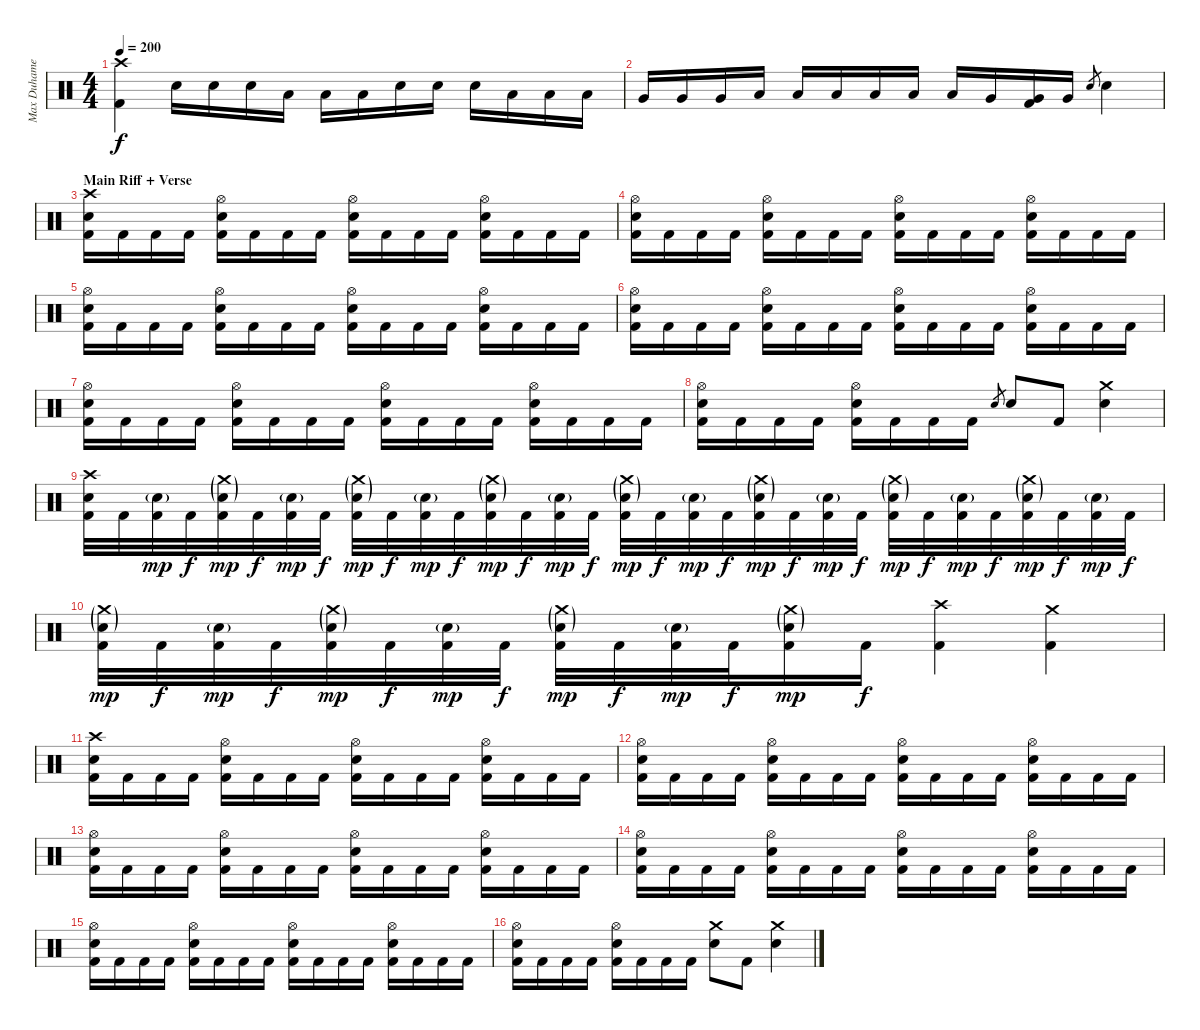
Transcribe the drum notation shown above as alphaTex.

\track ("Max Duhamel" "Max Duhame") {instrument percussion}
\staff {score}
\articulation defaults
\ts (4 4)
\tempo 200
\clef neutral
\ks c
("Crash high (hit)" "Kick (hit) 2").4{dy f} "Electric Snare (hit)".16 "Electric Snare (hit)".16 "Electric Snare (hit)".16 "Low Floor Tom (hit)".16 "Low Floor Tom (hit)".16 "Low Floor Tom (hit)".16 "Electric Snare (hit)".16 "Electric Snare (hit)".16 "Electric Snare (hit)".16 "Low Tom (hit)".16 "Low Tom (hit)".16 "Low Tom (hit)".16 |
"Very Low Tom (hit)".16 "Very Low Tom (hit)".16 "Very Low Tom (hit)".16 "Low Tom (hit)".16 "Low Tom (hit)".16 "Low Tom (hit)".16 "Low Floor Tom (hit)".16 "Low Floor Tom (hit)".16 "Low Floor Tom (hit)".16 "Very Low Tom (hit)".16 ("Very Low Tom (hit)" "Kick (hit) 2").16 "Very Low Tom (hit)".16 "Electric Snare (hit)".8{gr} "Electric Snare (hit)".4 |
\section ("" "Main Riff + Verse")
("Crash high (hit)" "Electric Snare (hit)" "Kick (hit) 2").16 "Kick (hit) 2".16 "Kick (hit) 2".16 "Kick (hit) 2".16 ("Hi-Hat (open)" "Electric Snare (hit)" "Kick (hit) 2").16 "Kick (hit) 2".16 "Kick (hit) 2".16 "Kick (hit) 2".16 ("Hi-Hat (open)" "Electric Snare (hit)" "Kick (hit) 2").16 "Kick (hit) 2".16 "Kick (hit) 2".16 "Kick (hit) 2".16 ("Hi-Hat (open)" "Electric Snare (hit)" "Kick (hit) 2").16 "Kick (hit) 2".16 "Kick (hit) 2".16 "Kick (hit) 2".16 |
("Hi-Hat (open)" "Electric Snare (hit)" "Kick (hit) 2").16 "Kick (hit) 2".16 "Kick (hit) 2".16 "Kick (hit) 2".16 ("Hi-Hat (open)" "Electric Snare (hit)" "Kick (hit) 2").16 "Kick (hit) 2".16 "Kick (hit) 2".16 "Kick (hit) 2".16 ("Hi-Hat (open)" "Electric Snare (hit)" "Kick (hit) 2").16 "Kick (hit) 2".16 "Kick (hit) 2".16 "Kick (hit) 2".16 ("Hi-Hat (open)" "Electric Snare (hit)" "Kick (hit) 2").16 "Kick (hit) 2".16 "Kick (hit) 2".16 "Kick (hit) 2".16 |
("Hi-Hat (open)" "Electric Snare (hit)" "Kick (hit) 2").16 "Kick (hit) 2".16 "Kick (hit) 2".16 "Kick (hit) 2".16 ("Hi-Hat (open)" "Electric Snare (hit)" "Kick (hit) 2").16 "Kick (hit) 2".16 "Kick (hit) 2".16 "Kick (hit) 2".16 ("Hi-Hat (open)" "Electric Snare (hit)" "Kick (hit) 2").16 "Kick (hit) 2".16 "Kick (hit) 2".16 "Kick (hit) 2".16 ("Hi-Hat (open)" "Electric Snare (hit)" "Kick (hit) 2").16 "Kick (hit) 2".16 "Kick (hit) 2".16 "Kick (hit) 2".16 |
("Hi-Hat (open)" "Electric Snare (hit)" "Kick (hit) 2").16 "Kick (hit) 2".16 "Kick (hit) 2".16 "Kick (hit) 2".16 ("Hi-Hat (open)" "Electric Snare (hit)" "Kick (hit) 2").16 "Kick (hit) 2".16 "Kick (hit) 2".16 "Kick (hit) 2".16 ("Hi-Hat (open)" "Electric Snare (hit)" "Kick (hit) 2").16 "Kick (hit) 2".16 "Kick (hit) 2".16 "Kick (hit) 2".16 ("Hi-Hat (open)" "Electric Snare (hit)" "Kick (hit) 2").16 "Kick (hit) 2".16 "Kick (hit) 2".16 "Kick (hit) 2".16 |
("Hi-Hat (open)" "Electric Snare (hit)" "Kick (hit) 2").16 "Kick (hit) 2".16 "Kick (hit) 2".16 "Kick (hit) 2".16 ("Hi-Hat (open)" "Electric Snare (hit)" "Kick (hit) 2").16 "Kick (hit) 2".16 "Kick (hit) 2".16 "Kick (hit) 2".16 ("Hi-Hat (open)" "Electric Snare (hit)" "Kick (hit) 2").16 "Kick (hit) 2".16 "Kick (hit) 2".16 "Kick (hit) 2".16 ("Hi-Hat (open)" "Electric Snare (hit)" "Kick (hit) 2").16 "Kick (hit) 2".16 "Kick (hit) 2".16 "Kick (hit) 2".16 |
("Hi-Hat (open)" "Electric Snare (hit)" "Kick (hit) 2").16 "Kick (hit) 2".16 "Kick (hit) 2".16 "Kick (hit) 2".16 ("Hi-Hat (open)" "Electric Snare (hit)" "Kick (hit) 2").16 "Kick (hit) 2".16 "Kick (hit) 2".16 "Kick (hit) 2".16 "Electric Snare (hit)".8{gr} "Electric Snare (hit)".8 "Kick (hit) 2".8 ("Crash medium (hit)" "Electric Snare (hit)").4 |
("Crash high (hit)" "Electric Snare (hit)" "Kick (hit) 2").32 "Kick (hit) 2".32 ("Electric Snare (hit)"{g} "Kick (hit) 2").32{dy mp} "Kick (hit) 2".32{dy f} ("Crash medium (hit)"{g} "Electric Snare (hit)"{g} "Kick (hit) 2").32{dy mp} "Kick (hit) 2".32{dy f} ("Electric Snare (hit)"{g} "Kick (hit) 2").32{dy mp} "Kick (hit) 2".32{dy f} ("Crash medium (hit)"{g} "Electric Snare (hit)"{g} "Kick (hit) 2").32{dy mp} "Kick (hit) 2".32{dy f} ("Electric Snare (hit)"{g} "Kick (hit) 2").32{dy mp} "Kick (hit) 2".32{dy f} ("Crash medium (hit)"{g} "Electric Snare (hit)"{g} "Kick (hit) 2").32{dy mp} "Kick (hit) 2".32{dy f} ("Electric Snare (hit)"{g} "Kick (hit) 2").32{dy mp} "Kick (hit) 2".32{dy f} ("Crash medium (hit)"{g} "Electric Snare (hit)"{g} "Kick (hit) 2").32{dy mp} "Kick (hit) 2".32{dy f} ("Electric Snare (hit)"{g} "Kick (hit) 2").32{dy mp} "Kick (hit) 2".32{dy f} ("Crash medium (hit)"{g} "Electric Snare (hit)"{g} "Kick (hit) 2").32{dy mp} "Kick (hit) 2".32{dy f} ("Electric Snare (hit)"{g} "Kick (hit) 2").32{dy mp} "Kick (hit) 2".32{dy f} ("Crash medium (hit)"{g} "Electric Snare (hit)"{g} "Kick (hit) 2").32{dy mp} "Kick (hit) 2".32{dy f} ("Electric Snare (hit)"{g} "Kick (hit) 2").32{dy mp} "Kick (hit) 2".32{dy f} ("Crash medium (hit)"{g} "Electric Snare (hit)"{g} "Kick (hit) 2").32{dy mp} "Kick (hit) 2".32{dy f} ("Electric Snare (hit)"{g} "Kick (hit) 2").32{dy mp} "Kick (hit) 2".32{dy f} |
("Crash medium (hit)"{g} "Electric Snare (hit)"{g} "Kick (hit) 2").32{dy mp} "Kick (hit) 2".32{dy f} ("Electric Snare (hit)"{g} "Kick (hit) 2").32{dy mp} "Kick (hit) 2".32{dy f} ("Crash medium (hit)"{g} "Electric Snare (hit)"{g} "Kick (hit) 2").32{dy mp} "Kick (hit) 2".32{dy f} ("Electric Snare (hit)"{g} "Kick (hit) 2").32{dy mp} "Kick (hit) 2".32{dy f} ("Crash medium (hit)"{g} "Electric Snare (hit)"{g} "Kick (hit) 2").32{dy mp} "Kick (hit) 2".32{dy f} ("Electric Snare (hit)"{g} "Kick (hit) 2").32{dy mp} "Kick (hit) 2".32{dy f} ("Crash medium (hit)"{g} "Electric Snare (hit)"{g} "Kick (hit) 2").16{dy mp} "Kick (hit) 2".16{dy f} ("Crash high (hit)" "Kick (hit) 2").4 ("Crash medium (hit)" "Kick (hit) 2").4 |
\section ("" "")
("Crash high (hit)" "Electric Snare (hit)" "Kick (hit) 2").16 "Kick (hit) 2".16 "Kick (hit) 2".16 "Kick (hit) 2".16 ("Hi-Hat (open)" "Electric Snare (hit)" "Kick (hit) 2").16 "Kick (hit) 2".16 "Kick (hit) 2".16 "Kick (hit) 2".16 ("Hi-Hat (open)" "Electric Snare (hit)" "Kick (hit) 2").16 "Kick (hit) 2".16 "Kick (hit) 2".16 "Kick (hit) 2".16 ("Hi-Hat (open)" "Electric Snare (hit)" "Kick (hit) 2").16 "Kick (hit) 2".16 "Kick (hit) 2".16 "Kick (hit) 2".16 |
("Hi-Hat (open)" "Electric Snare (hit)" "Kick (hit) 2").16 "Kick (hit) 2".16 "Kick (hit) 2".16 "Kick (hit) 2".16 ("Hi-Hat (open)" "Electric Snare (hit)" "Kick (hit) 2").16 "Kick (hit) 2".16 "Kick (hit) 2".16 "Kick (hit) 2".16 ("Hi-Hat (open)" "Electric Snare (hit)" "Kick (hit) 2").16 "Kick (hit) 2".16 "Kick (hit) 2".16 "Kick (hit) 2".16 ("Hi-Hat (open)" "Electric Snare (hit)" "Kick (hit) 2").16 "Kick (hit) 2".16 "Kick (hit) 2".16 "Kick (hit) 2".16 |
("Hi-Hat (open)" "Electric Snare (hit)" "Kick (hit) 2").16 "Kick (hit) 2".16 "Kick (hit) 2".16 "Kick (hit) 2".16 ("Hi-Hat (open)" "Electric Snare (hit)" "Kick (hit) 2").16 "Kick (hit) 2".16 "Kick (hit) 2".16 "Kick (hit) 2".16 ("Hi-Hat (open)" "Electric Snare (hit)" "Kick (hit) 2").16 "Kick (hit) 2".16 "Kick (hit) 2".16 "Kick (hit) 2".16 ("Hi-Hat (open)" "Electric Snare (hit)" "Kick (hit) 2").16 "Kick (hit) 2".16 "Kick (hit) 2".16 "Kick (hit) 2".16 |
("Hi-Hat (open)" "Electric Snare (hit)" "Kick (hit) 2").16 "Kick (hit) 2".16 "Kick (hit) 2".16 "Kick (hit) 2".16 ("Hi-Hat (open)" "Electric Snare (hit)" "Kick (hit) 2").16 "Kick (hit) 2".16 "Kick (hit) 2".16 "Kick (hit) 2".16 ("Hi-Hat (open)" "Electric Snare (hit)" "Kick (hit) 2").16 "Kick (hit) 2".16 "Kick (hit) 2".16 "Kick (hit) 2".16 ("Hi-Hat (open)" "Electric Snare (hit)" "Kick (hit) 2").16 "Kick (hit) 2".16 "Kick (hit) 2".16 "Kick (hit) 2".16 |
("Hi-Hat (open)" "Electric Snare (hit)" "Kick (hit) 2").16 "Kick (hit) 2".16 "Kick (hit) 2".16 "Kick (hit) 2".16 ("Hi-Hat (open)" "Electric Snare (hit)" "Kick (hit) 2").16 "Kick (hit) 2".16 "Kick (hit) 2".16 "Kick (hit) 2".16 ("Hi-Hat (open)" "Electric Snare (hit)" "Kick (hit) 2").16 "Kick (hit) 2".16 "Kick (hit) 2".16 "Kick (hit) 2".16 ("Hi-Hat (open)" "Electric Snare (hit)" "Kick (hit) 2").16 "Kick (hit) 2".16 "Kick (hit) 2".16 "Kick (hit) 2".16 |
("Hi-Hat (open)" "Electric Snare (hit)" "Kick (hit) 2").16 "Kick (hit) 2".16 "Kick (hit) 2".16 "Kick (hit) 2".16 ("Hi-Hat (open)" "Electric Snare (hit)" "Kick (hit) 2").16 "Kick (hit) 2".16 "Kick (hit) 2".16 "Kick (hit) 2".16 ("Crash medium (hit)" "Electric Snare (hit)").8 "Kick (hit) 2".8 ("Crash medium (hit)" "Electric Snare (hit)").4
